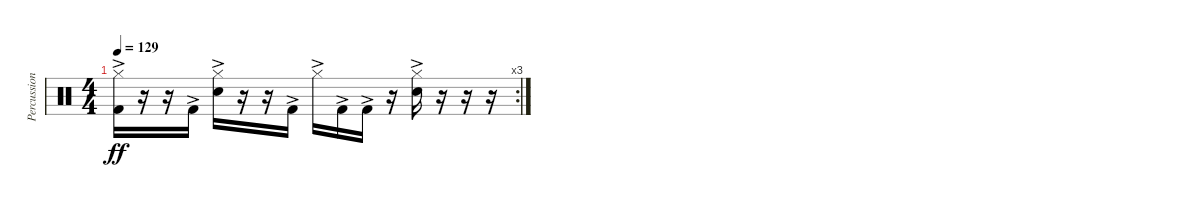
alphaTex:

\track ("Percussion" "Percussion") {instrument percussion}
\staff {score}
\articulation defaults
\rc 3
\ts (4 4)
\tempo 129
\clef neutral
\ks c
("Hi-Hat (closed)"{ac} "Kick (hit) 2"{ac}).16{dy ff} r.16 r.16 "Kick (hit) 2"{ac}.16 ("Hi-Hat (closed)"{ac} "Snare (hit) 2"{ac}).16 r.16 r.16 "Kick (hit) 2"{ac}.16 "Hi-Hat (closed)"{ac}.16 "Kick (hit) 2"{ac}.16 "Kick (hit) 2"{ac}.16 r.16 ("Hi-Hat (closed)"{ac} "Snare (hit) 2"{ac}).16 r.16 r.16 r.16
